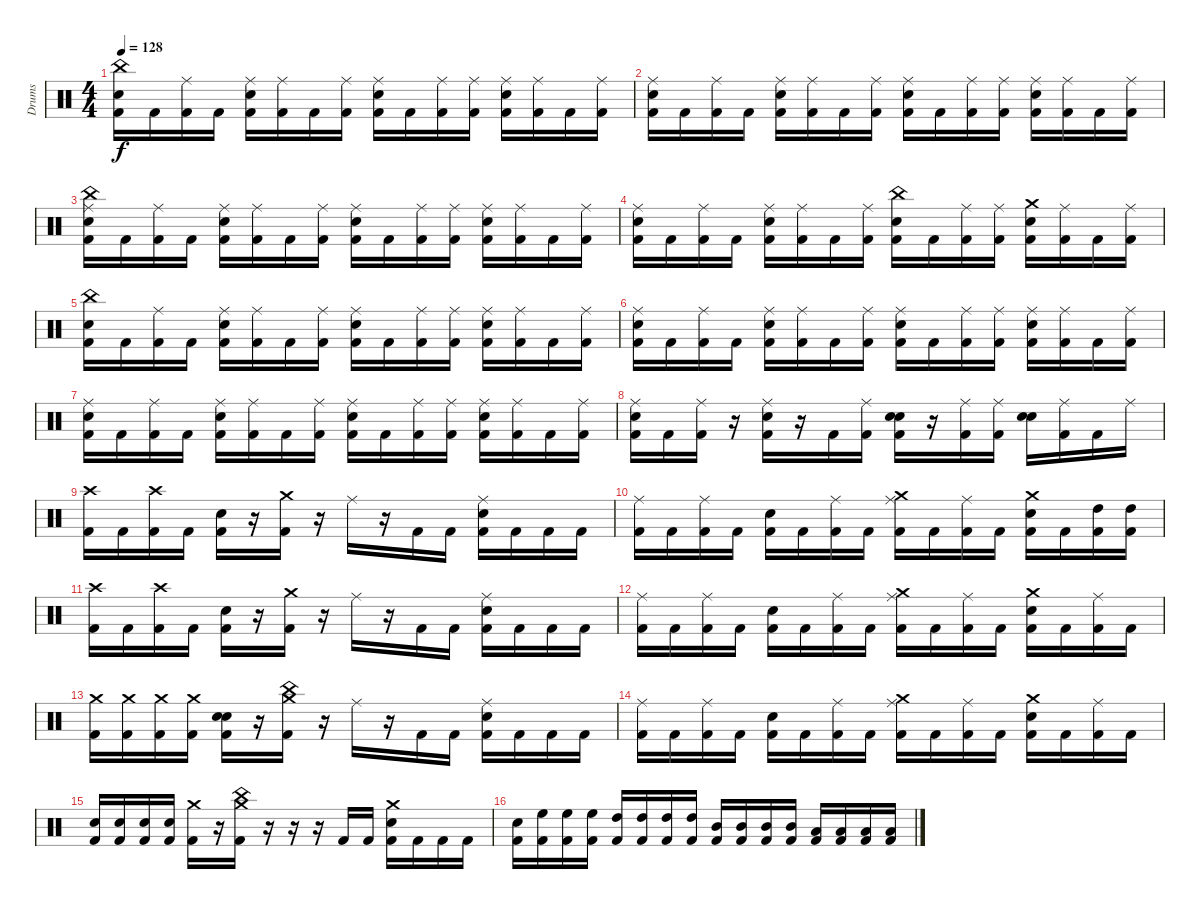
\track ("Drums" "Drums") {instrument percussion}
\staff {score}
\articulation defaults
\ts (4 4)
\tempo 128
\clef neutral
\ks c
("China (hit)" "Snare (hit) 2" "Kick (hit) 2").16{dy f} "Kick (hit) 2".16 ("Ride (middle)" "Kick (hit) 2").16 "Kick (hit) 2".16 ("Snare (hit) 2" "Ride (middle)" "Kick (hit) 2").16 ("Ride (middle)" "Kick (hit) 2").16 "Kick (hit) 2".16 ("Ride (middle)" "Kick (hit) 2").16 ("Snare (hit) 2" "Ride (middle)" "Kick (hit) 2").16 "Kick (hit) 2".16 ("Ride (middle)" "Kick (hit) 2").16 ("Ride (middle)" "Kick (hit) 2").16 ("Snare (hit) 2" "Ride (middle)" "Kick (hit) 2").16 ("Ride (middle)" "Kick (hit) 2").16 "Kick (hit) 2".16 ("Ride (middle)" "Kick (hit) 2").16 |
("Snare (hit) 2" "Ride (middle)" "Kick (hit) 2").16 "Kick (hit) 2".16 ("Ride (middle)" "Kick (hit) 2").16 "Kick (hit) 2".16 ("Snare (hit) 2" "Ride (middle)" "Kick (hit) 2").16 ("Ride (middle)" "Kick (hit) 2").16 "Kick (hit) 2".16 ("Ride (middle)" "Kick (hit) 2").16 ("Snare (hit) 2" "Ride (middle)" "Kick (hit) 2").16 "Kick (hit) 2".16 ("Ride (middle)" "Kick (hit) 2").16 ("Ride (middle)" "Kick (hit) 2").16 ("Snare (hit) 2" "Ride (middle)" "Kick (hit) 2").16 ("Ride (middle)" "Kick (hit) 2").16 "Kick (hit) 2".16 ("Ride (middle)" "Kick (hit) 2").16 |
("China (hit)" "Snare (hit) 2" "Ride (middle)" "Kick (hit) 2").16 "Kick (hit) 2".16 ("Ride (middle)" "Kick (hit) 2").16 "Kick (hit) 2".16 ("Snare (hit) 2" "Ride (middle)" "Kick (hit) 2").16 ("Ride (middle)" "Kick (hit) 2").16 "Kick (hit) 2".16 ("Ride (middle)" "Kick (hit) 2").16 ("Snare (hit) 2" "Ride (middle)" "Kick (hit) 2").16 "Kick (hit) 2".16 ("Ride (middle)" "Kick (hit) 2").16 ("Ride (middle)" "Kick (hit) 2").16 ("Snare (hit) 2" "Ride (middle)" "Kick (hit) 2").16 ("Ride (middle)" "Kick (hit) 2").16 "Kick (hit) 2".16 ("Ride (middle)" "Kick (hit) 2").16 |
("Snare (hit) 2" "Ride (middle)" "Kick (hit) 2").16 "Kick (hit) 2".16 ("Ride (middle)" "Kick (hit) 2").16 "Kick (hit) 2".16 ("Snare (hit) 2" "Ride (middle)" "Kick (hit) 2").16 ("Ride (middle)" "Kick (hit) 2").16 "Kick (hit) 2".16 ("Ride (middle)" "Kick (hit) 2").16 ("China (hit)" "Snare (hit) 2" "Kick (hit) 2").16 "Kick (hit) 2".16 ("Ride (middle)" "Kick (hit) 2").16 ("Ride (middle)" "Kick (hit) 2").16 ("Crash medium (hit)" "Snare (hit) 2" "Kick (hit) 2").16 ("Ride (middle)" "Kick (hit) 2").16 "Kick (hit) 2".16 ("Ride (middle)" "Kick (hit) 2").16 |
("China (hit)" "Snare (hit) 2" "Kick (hit) 2").16 "Kick (hit) 2".16 ("Ride (middle)" "Kick (hit) 2").16 "Kick (hit) 2".16 ("Snare (hit) 2" "Ride (middle)" "Kick (hit) 2").16 ("Ride (middle)" "Kick (hit) 2").16 "Kick (hit) 2".16 ("Ride (middle)" "Kick (hit) 2").16 ("Snare (hit) 2" "Ride (middle)" "Kick (hit) 2").16 "Kick (hit) 2".16 ("Ride (middle)" "Kick (hit) 2").16 ("Ride (middle)" "Kick (hit) 2").16 ("Snare (hit) 2" "Ride (middle)" "Kick (hit) 2").16 ("Ride (middle)" "Kick (hit) 2").16 "Kick (hit) 2".16 ("Ride (middle)" "Kick (hit) 2").16 |
("Snare (hit) 2" "Ride (middle)" "Kick (hit) 2").16 "Kick (hit) 2".16 ("Ride (middle)" "Kick (hit) 2").16 "Kick (hit) 2".16 ("Snare (hit) 2" "Ride (middle)" "Kick (hit) 2").16 ("Ride (middle)" "Kick (hit) 2").16 "Kick (hit) 2".16 ("Ride (middle)" "Kick (hit) 2").16 ("Snare (hit) 2" "Ride (middle)" "Kick (hit) 2").16 "Kick (hit) 2".16 ("Ride (middle)" "Kick (hit) 2").16 ("Ride (middle)" "Kick (hit) 2").16 ("Snare (hit) 2" "Ride (middle)" "Kick (hit) 2").16 ("Ride (middle)" "Kick (hit) 2").16 "Kick (hit) 2".16 ("Ride (middle)" "Kick (hit) 2").16 |
("Snare (hit) 2" "Ride (middle)" "Kick (hit) 2").16 "Kick (hit) 2".16 ("Ride (middle)" "Kick (hit) 2").16 "Kick (hit) 2".16 ("Snare (hit) 2" "Ride (middle)" "Kick (hit) 2").16 ("Ride (middle)" "Kick (hit) 2").16 "Kick (hit) 2".16 ("Ride (middle)" "Kick (hit) 2").16 ("Snare (hit) 2" "Ride (middle)" "Kick (hit) 2").16 "Kick (hit) 2".16 ("Ride (middle)" "Kick (hit) 2").16 ("Ride (middle)" "Kick (hit) 2").16 ("Snare (hit) 2" "Ride (middle)" "Kick (hit) 2").16 ("Ride (middle)" "Kick (hit) 2").16 "Kick (hit) 2".16 ("Ride (middle)" "Kick (hit) 2").16 |
("Snare (hit) 2" "Ride (middle)" "Kick (hit) 2").16 "Kick (hit) 2".16 ("Ride (middle)" "Kick (hit) 2").16 r.16 ("Snare (hit) 2" "Ride (middle)" "Kick (hit) 2").16 r.16 "Kick (hit) 2".16 ("Ride (middle)" "Kick (hit) 2").16 ("Snare (hit) 2" "Snare (hit) 2" "Kick (hit) 2").16 r.16 ("Ride (middle)" "Kick (hit) 2").16 ("Ride (middle)" "Kick (hit) 2").16 ("Snare (hit) 2" "Snare (hit) 2").16 ("Ride (middle)" "Kick (hit) 2").16 "Kick (hit) 2".16 "Ride (middle)".16 |
("Crash high (hit)" "Kick (hit) 2").16 "Kick (hit) 2".16 ("Crash high (hit)" "Kick (hit) 2").16 "Kick (hit) 2".16 ("Snare (hit) 2" "Kick (hit) 2").16 r.16 ("Crash medium (hit)" "Kick (hit) 2").16 r.16 "Ride (middle)".16 r.16 "Kick (hit) 2".16 "Kick (hit) 2".16 ("Ride (middle)" "Snare (hit) 2" "Kick (hit) 2").16 "Kick (hit) 2".16 "Kick (hit) 2".16 "Kick (hit) 2".16 |
("Ride (middle)" "Kick (hit) 2").16 "Kick (hit) 2".16 ("Ride (middle)" "Kick (hit) 2").16 "Kick (hit) 2".16 ("Snare (hit) 2" "Kick (hit) 2").16 "Kick (hit) 2".16 ("Ride (middle)" "Kick (hit) 2").16 "Kick (hit) 2".16 ("Crash medium (hit)" "Ride (middle)" "Kick (hit) 2").16 "Kick (hit) 2".16 ("Ride (middle)" "Kick (hit) 2").16 "Kick (hit) 2".16 ("Crash medium (hit)" "Snare (hit) 2" "Kick (hit) 2").16 "Kick (hit) 2".16 ("High Tom (hit)" "Kick (hit) 2").16 ("High Tom (hit)" "Kick (hit) 2").16 |
("Crash high (hit)" "Kick (hit) 2").16 "Kick (hit) 2".16 ("Crash high (hit)" "Kick (hit) 2").16 "Kick (hit) 2".16 ("Snare (hit) 2" "Kick (hit) 2").16 r.16 ("Crash medium (hit)" "Kick (hit) 2").16 r.16 "Ride (middle)".16 r.16 "Kick (hit) 2".16 "Kick (hit) 2".16 ("Ride (middle)" "Snare (hit) 2" "Kick (hit) 2").16 "Kick (hit) 2".16 "Kick (hit) 2".16 "Kick (hit) 2".16 |
("Ride (middle)" "Kick (hit) 2").16 "Kick (hit) 2".16 ("Ride (middle)" "Kick (hit) 2").16 "Kick (hit) 2".16 ("Snare (hit) 2" "Kick (hit) 2").16 "Kick (hit) 2".16 ("Ride (middle)" "Kick (hit) 2").16 "Kick (hit) 2".16 ("Crash medium (hit)" "Ride (middle)" "Kick (hit) 2").16 "Kick (hit) 2".16 ("Ride (middle)" "Kick (hit) 2").16 "Kick (hit) 2".16 ("Crash medium (hit)" "Snare (hit) 2" "Kick (hit) 2").16 "Kick (hit) 2".16 ("Ride (middle)" "Kick (hit) 2").16 "Kick (hit) 2".16 |
("Crash medium (hit)" "Kick (hit) 2").16 ("Crash medium (hit)" "Kick (hit) 2").16 ("Crash medium (hit)" "Kick (hit) 2").16 ("Crash medium (hit)" "Kick (hit) 2").16 ("Snare (hit) 2" "Snare (hit) 2" "Kick (hit) 2").16 r.16 ("China (hit)" "Crash medium (hit)" "Kick (hit) 2").16 r.16 "Ride (middle)".16 r.16 "Kick (hit) 2".16 "Kick (hit) 2".16 ("Ride (middle)" "Snare (hit) 2" "Kick (hit) 2").16 "Kick (hit) 2".16 "Kick (hit) 2".16 "Kick (hit) 2".16 |
("Ride (middle)" "Kick (hit) 2").16 "Kick (hit) 2".16 ("Ride (middle)" "Kick (hit) 2").16 "Kick (hit) 2".16 ("Snare (hit) 2" "Kick (hit) 2").16 "Kick (hit) 2".16 ("Ride (middle)" "Kick (hit) 2").16 "Kick (hit) 2".16 ("Crash medium (hit)" "Ride (middle)" "Kick (hit) 2").16 "Kick (hit) 2".16 ("Ride (middle)" "Kick (hit) 2").16 "Kick (hit) 2".16 ("Crash medium (hit)" "Snare (hit) 2" "Kick (hit) 2").16 "Kick (hit) 2".16 ("Ride (middle)" "Kick (hit) 2").16 "Kick (hit) 2".16 |
("Snare (hit) 2" "Kick (hit) 2").16 ("Snare (hit) 2" "Kick (hit) 2").16 ("Snare (hit) 2" "Kick (hit) 2").16 ("Snare (hit) 2" "Kick (hit) 2").16 ("Crash medium (hit)" "Kick (hit) 2").16 r.16 ("China (hit)" "Crash medium (hit)" "Kick (hit) 2").16 r.16 r.16 r.16 "Kick (hit) 2".16 "Kick (hit) 2".16 ("Crash medium (hit)" "Snare (hit) 2" "Kick (hit) 2").16 "Kick (hit) 2".16 "Kick (hit) 2".16 "Kick (hit) 2".16 |
("Snare (hit) 2" "Kick (hit) 2").16 ("High Floor Tom (hit)" "Kick (hit) 2").16 ("High Floor Tom (hit)" "Kick (hit) 2").16 ("High Floor Tom (hit)" "Kick (hit) 2").16 ("High Tom (hit)" "Kick (hit) 2").16 ("High Tom (hit)" "Kick (hit) 2").16 ("High Tom (hit)" "Kick (hit) 2").16 ("High Tom (hit)" "Kick (hit) 2").16 ("Mid Tom (hit)" "Kick (hit) 2").16 ("Mid Tom (hit)" "Kick (hit) 2").16 ("Mid Tom (hit)" "Kick (hit) 2").16 ("Mid Tom (hit)" "Kick (hit) 2").16 ("Low Tom (hit)" "Kick (hit) 2").16 ("Low Tom (hit)" "Kick (hit) 2").16 ("Low Tom (hit)" "Kick (hit) 2").16 ("Low Tom (hit)" "Kick (hit) 2").16
